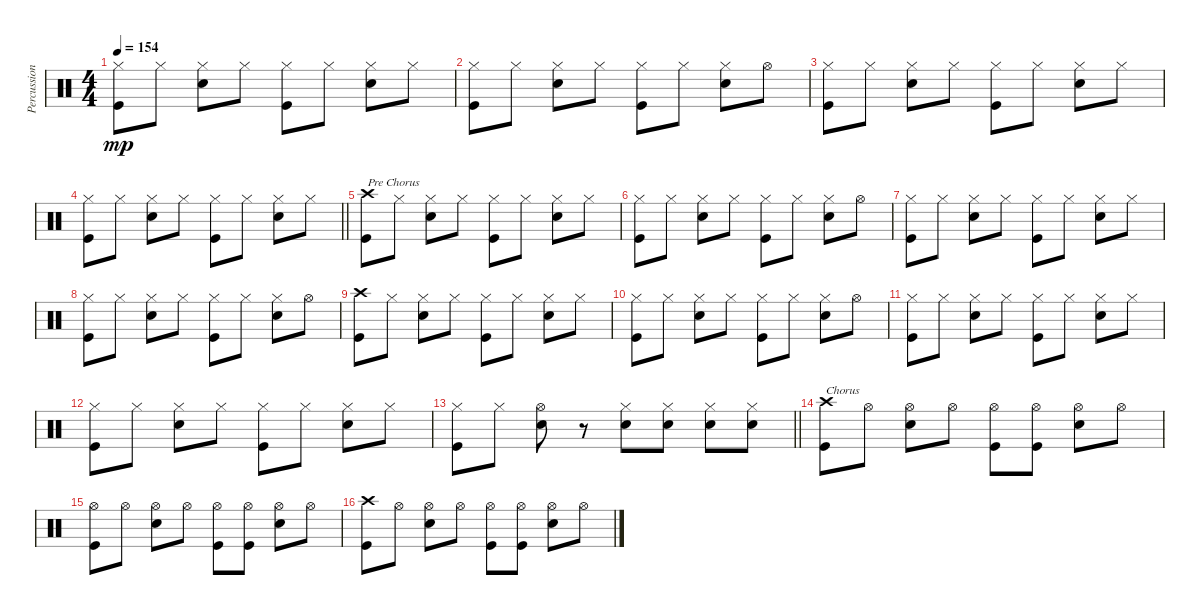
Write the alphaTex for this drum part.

\track ("Percussion" "Percussion") {instrument percussion}
\staff {score}
\articulation defaults
\ts (4 4)
\tempo 154
\clef neutral
\ks c
("Hi-Hat (closed)" "Kick (hit)").8{dy mp} "Hi-Hat (closed)".8 ("Hi-Hat (closed)" "Electric Snare (hit)").8 "Hi-Hat (closed)".8 ("Hi-Hat (closed)" "Kick (hit)").8 "Hi-Hat (closed)".8 ("Hi-Hat (closed)" "Electric Snare (hit)").8 "Hi-Hat (closed)".8 |
("Hi-Hat (closed)" "Kick (hit)").8 "Hi-Hat (closed)".8 ("Hi-Hat (closed)" "Electric Snare (hit)").8 "Hi-Hat (closed)".8 ("Hi-Hat (closed)" "Kick (hit)").8 "Hi-Hat (closed)".8 ("Hi-Hat (closed)" "Electric Snare (hit)").8 "Hi-Hat (open)".8 |
("Hi-Hat (closed)" "Kick (hit)").8 "Hi-Hat (closed)".8 ("Hi-Hat (closed)" "Electric Snare (hit)").8 "Hi-Hat (closed)".8 ("Hi-Hat (closed)" "Kick (hit)").8 "Hi-Hat (closed)".8 ("Hi-Hat (closed)" "Electric Snare (hit)").8 "Hi-Hat (closed)".8 |
\barLineRight lightlight
("Hi-Hat (closed)" "Kick (hit)").8 "Hi-Hat (closed)".8 ("Hi-Hat (closed)" "Electric Snare (hit)").8 "Hi-Hat (closed)".8 ("Hi-Hat (closed)" "Kick (hit)").8 "Hi-Hat (closed)".8 ("Hi-Hat (closed)" "Electric Snare (hit)").8 "Hi-Hat (closed)".8 |
("Crash high (hit)" "Kick (hit)").8{txt "Pre Chorus"} "Hi-Hat (closed)".8 ("Hi-Hat (closed)" "Electric Snare (hit)").8 "Hi-Hat (closed)".8 ("Hi-Hat (closed)" "Kick (hit)").8 "Hi-Hat (closed)".8 ("Hi-Hat (closed)" "Electric Snare (hit)").8 "Hi-Hat (closed)".8 |
("Hi-Hat (closed)" "Kick (hit)").8 "Hi-Hat (closed)".8 ("Hi-Hat (closed)" "Electric Snare (hit)").8 "Hi-Hat (closed)".8 ("Hi-Hat (closed)" "Kick (hit)").8 "Hi-Hat (closed)".8 ("Hi-Hat (closed)" "Electric Snare (hit)").8 "Hi-Hat (open)".8 |
("Hi-Hat (closed)" "Kick (hit)").8 "Hi-Hat (closed)".8 ("Hi-Hat (closed)" "Electric Snare (hit)").8 "Hi-Hat (closed)".8 ("Hi-Hat (closed)" "Kick (hit)").8 "Hi-Hat (closed)".8 ("Hi-Hat (closed)" "Electric Snare (hit)").8 "Hi-Hat (closed)".8 |
("Hi-Hat (closed)" "Kick (hit)").8 "Hi-Hat (closed)".8 ("Hi-Hat (closed)" "Electric Snare (hit)").8 "Hi-Hat (closed)".8 ("Hi-Hat (closed)" "Kick (hit)").8 "Hi-Hat (closed)".8 ("Hi-Hat (closed)" "Electric Snare (hit)").8 "Hi-Hat (open)".8 |
("Crash high (hit)" "Kick (hit)").8 "Hi-Hat (closed)".8 ("Hi-Hat (closed)" "Electric Snare (hit)").8 "Hi-Hat (closed)".8 ("Hi-Hat (closed)" "Kick (hit)").8 "Hi-Hat (closed)".8 ("Hi-Hat (closed)" "Electric Snare (hit)").8 "Hi-Hat (closed)".8 |
("Hi-Hat (closed)" "Kick (hit)").8 "Hi-Hat (closed)".8 ("Hi-Hat (closed)" "Electric Snare (hit)").8 "Hi-Hat (closed)".8 ("Hi-Hat (closed)" "Kick (hit)").8 "Hi-Hat (closed)".8 ("Hi-Hat (closed)" "Electric Snare (hit)").8 "Hi-Hat (open)".8 |
("Hi-Hat (closed)" "Kick (hit)").8 "Hi-Hat (closed)".8 ("Hi-Hat (closed)" "Electric Snare (hit)").8 "Hi-Hat (closed)".8 ("Hi-Hat (closed)" "Kick (hit)").8 "Hi-Hat (closed)".8 ("Hi-Hat (closed)" "Electric Snare (hit)").8 "Hi-Hat (closed)".8 |
("Hi-Hat (closed)" "Kick (hit)").8 "Hi-Hat (closed)".8 ("Hi-Hat (closed)" "Electric Snare (hit)").8 "Hi-Hat (closed)".8 ("Hi-Hat (closed)" "Kick (hit)").8 "Hi-Hat (closed)".8 ("Hi-Hat (closed)" "Electric Snare (hit)").8 "Hi-Hat (closed)".8 |
\barLineRight lightlight
("Hi-Hat (closed)" "Kick (hit)").8 "Hi-Hat (closed)".8 ("Hi-Hat (open)" "Electric Snare (hit)").8 r.8 ("Hi-Hat (closed)" "Electric Snare (hit)").8 ("Hi-Hat (closed)" "Electric Snare (hit)").8 ("Hi-Hat (closed)" "Electric Snare (hit)").8 ("Hi-Hat (closed)" "Electric Snare (hit)").8 |
("Crash high (hit)" "Kick (hit)").8{txt "Chorus"} "Hi-Hat (open)".8 ("Hi-Hat (open)" "Electric Snare (hit)").8 "Hi-Hat (open)".8 ("Hi-Hat (open)" "Kick (hit)").8 ("Hi-Hat (open)" "Kick (hit)").8 ("Hi-Hat (open)" "Electric Snare (hit)").8 "Hi-Hat (open)".8 |
("Hi-Hat (open)" "Kick (hit)").8 "Hi-Hat (open)".8 ("Hi-Hat (open)" "Electric Snare (hit)").8 "Hi-Hat (open)".8 ("Hi-Hat (open)" "Kick (hit)").8 ("Hi-Hat (open)" "Kick (hit)").8 ("Hi-Hat (open)" "Electric Snare (hit)").8 "Hi-Hat (open)".8 |
("Crash high (hit)" "Kick (hit)").8 "Hi-Hat (open)".8 ("Hi-Hat (open)" "Electric Snare (hit)").8 "Hi-Hat (open)".8 ("Hi-Hat (open)" "Kick (hit)").8 ("Hi-Hat (open)" "Kick (hit)").8 ("Hi-Hat (open)" "Electric Snare (hit)").8 "Hi-Hat (open)".8
